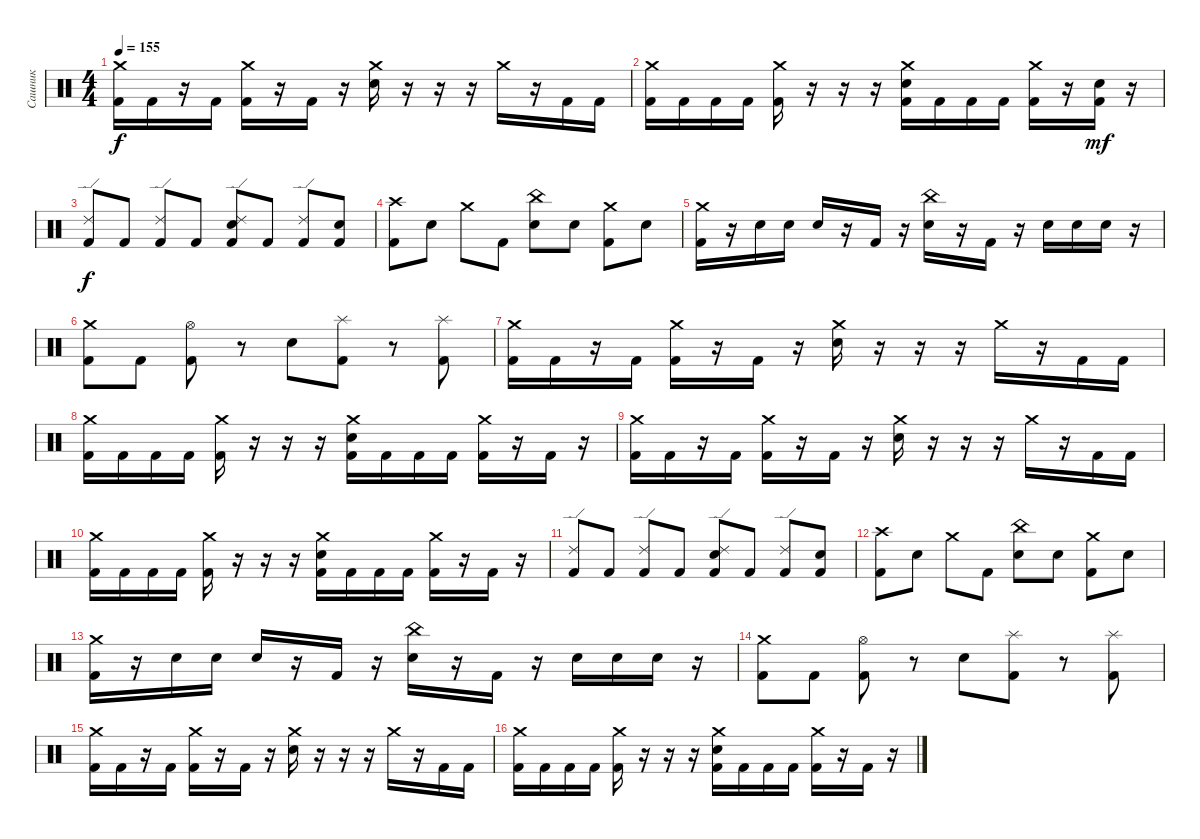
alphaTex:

\track ("Сашник" "Сашник") {instrument percussion}
\staff {score}
\articulation defaults
\ts (4 4)
\tempo 155
\clef neutral
\ks c
("Crash medium (hit)" "Kick (hit) 2").16{dy f} "Kick (hit) 2".16 r.16 "Kick (hit) 2".16 ("Crash medium (hit)" "Kick (hit) 2").16 r.16 "Kick (hit) 2".16 r.16 ("Crash medium (hit)" "Electric Snare (hit)").16 r.16 r.16 r.16 "Crash medium (hit)".16 r.16 "Kick (hit) 2".16 "Kick (hit) 2".16 |
("Crash medium (hit)" "Kick (hit) 2").16 "Kick (hit) 2".16 "Kick (hit) 2".16 "Kick (hit) 2".16 ("Crash medium (hit)" "Kick (hit) 2").16 r.16 r.16 r.16 ("Crash medium (hit)" "Electric Snare (hit)" "Kick (hit) 2").16 "Kick (hit) 2".16 "Kick (hit) 2".16 "Kick (hit) 2".16 ("Crash medium (hit)" "Kick (hit) 2").16 r.16 ("Electric Snare (hit)" "Kick (hit) 2").16{dy mf} r.16 |
("Ride (edge) 2" "Kick (hit) 2").8{dy f} "Kick (hit) 2".8 ("Ride (edge) 2" "Kick (hit) 2").8 "Kick (hit) 2".8 ("Ride (edge) 2" "Electric Snare (hit)" "Kick (hit) 2").8 "Kick (hit) 2".8 ("Ride (edge) 2" "Kick (hit) 2").8 ("Electric Snare (hit)" "Kick (hit) 2").8 |
("Crash high (hit)" "Kick (hit) 2").8 "Electric Snare (hit)".8 "Crash medium (hit)".8 "Kick (hit) 2".8 ("China (hit)" "Electric Snare (hit)").8 "Electric Snare (hit)".8 ("Crash medium (hit)" "Kick (hit) 2").8 "Electric Snare (hit)".8 |
("Crash medium (hit)" "Kick (hit) 2").16 r.16 "Electric Snare (hit)".16 "Electric Snare (hit)".16 "Electric Snare (hit)".16 r.16 "Kick (hit) 2".16 r.16 ("China (hit)" "Electric Snare (hit)").16 r.16 "Kick (hit) 2".16 r.16 "Electric Snare (hit)".16 "Electric Snare (hit)".16 "Electric Snare (hit)".16 r.16 |
("Crash medium (hit)" "Kick (hit) 2").8 "Kick (hit) 2".8 ("Hi-Hat (open)" "Kick (hit) 2").8 r.8 "Electric Snare (hit)".8 ("Splash (hit)" "Kick (hit) 2").8 r.8 ("Splash (hit)" "Kick (hit) 2").8 |
("Crash medium (hit)" "Kick (hit) 2").16 "Kick (hit) 2".16 r.16 "Kick (hit) 2".16 ("Crash medium (hit)" "Kick (hit) 2").16 r.16 "Kick (hit) 2".16 r.16 ("Crash medium (hit)" "Electric Snare (hit)").16 r.16 r.16 r.16 "Crash medium (hit)".16 r.16 "Kick (hit) 2".16 "Kick (hit) 2".16 |
("Crash medium (hit)" "Kick (hit) 2").16 "Kick (hit) 2".16 "Kick (hit) 2".16 "Kick (hit) 2".16 ("Crash medium (hit)" "Kick (hit) 2").16 r.16 r.16 r.16 ("Crash medium (hit)" "Electric Snare (hit)" "Kick (hit) 2").16 "Kick (hit) 2".16 "Kick (hit) 2".16 "Kick (hit) 2".16 ("Crash medium (hit)" "Kick (hit) 2").16 r.16 "Kick (hit) 2".16 r.16 |
("Crash medium (hit)" "Kick (hit) 2").16 "Kick (hit) 2".16 r.16 "Kick (hit) 2".16 ("Crash medium (hit)" "Kick (hit) 2").16 r.16 "Kick (hit) 2".16 r.16 ("Crash medium (hit)" "Electric Snare (hit)").16 r.16 r.16 r.16 "Crash medium (hit)".16 r.16 "Kick (hit) 2".16 "Kick (hit) 2".16 |
("Crash medium (hit)" "Kick (hit) 2").16 "Kick (hit) 2".16 "Kick (hit) 2".16 "Kick (hit) 2".16 ("Crash medium (hit)" "Kick (hit) 2").16 r.16 r.16 r.16 ("Crash medium (hit)" "Electric Snare (hit)" "Kick (hit) 2").16 "Kick (hit) 2".16 "Kick (hit) 2".16 "Kick (hit) 2".16 ("Crash medium (hit)" "Kick (hit) 2").16 r.16 "Kick (hit) 2".16 r.16 |
("Ride (edge) 2" "Kick (hit) 2").8 "Kick (hit) 2".8 ("Ride (edge) 2" "Kick (hit) 2").8 "Kick (hit) 2".8 ("Ride (edge) 2" "Electric Snare (hit)" "Kick (hit) 2").8 "Kick (hit) 2".8 ("Ride (edge) 2" "Kick (hit) 2").8 ("Electric Snare (hit)" "Kick (hit) 2").8 |
("Crash high (hit)" "Kick (hit) 2").8 "Electric Snare (hit)".8 "Crash medium (hit)".8 "Kick (hit) 2".8 ("China (hit)" "Electric Snare (hit)").8 "Electric Snare (hit)".8 ("Crash medium (hit)" "Kick (hit) 2").8 "Electric Snare (hit)".8 |
("Crash medium (hit)" "Kick (hit) 2").16 r.16 "Electric Snare (hit)".16 "Electric Snare (hit)".16 "Electric Snare (hit)".16 r.16 "Kick (hit) 2".16 r.16 ("China (hit)" "Electric Snare (hit)").16 r.16 "Kick (hit) 2".16 r.16 "Electric Snare (hit)".16 "Electric Snare (hit)".16 "Electric Snare (hit)".16 r.16 |
("Crash medium (hit)" "Kick (hit) 2").8 "Kick (hit) 2".8 ("Hi-Hat (open)" "Kick (hit) 2").8 r.8 "Electric Snare (hit)".8 ("Splash (hit)" "Kick (hit) 2").8 r.8 ("Splash (hit)" "Kick (hit) 2").8 |
("Crash medium (hit)" "Kick (hit) 2").16 "Kick (hit) 2".16 r.16 "Kick (hit) 2".16 ("Crash medium (hit)" "Kick (hit) 2").16 r.16 "Kick (hit) 2".16 r.16 ("Crash medium (hit)" "Electric Snare (hit)").16 r.16 r.16 r.16 "Crash medium (hit)".16 r.16 "Kick (hit) 2".16 "Kick (hit) 2".16 |
("Crash medium (hit)" "Kick (hit) 2").16 "Kick (hit) 2".16 "Kick (hit) 2".16 "Kick (hit) 2".16 ("Crash medium (hit)" "Kick (hit) 2").16 r.16 r.16 r.16 ("Crash medium (hit)" "Electric Snare (hit)" "Kick (hit) 2").16 "Kick (hit) 2".16 "Kick (hit) 2".16 "Kick (hit) 2".16 ("Crash medium (hit)" "Kick (hit) 2").16 r.16 "Kick (hit) 2".16 r.16
